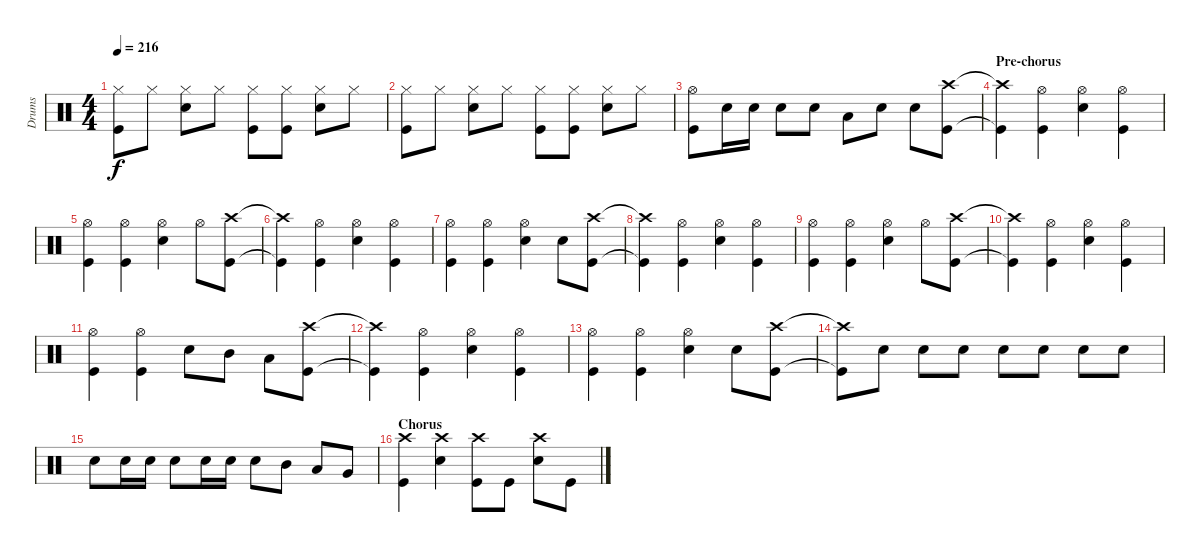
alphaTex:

\track ("Drums" "Drums") {instrument percussion}
\staff {score}
\articulation defaults
\ts (4 4)
\tempo 216
\clef neutral
\ks c
("Hi-Hat (closed)" "Kick (hit)").8{dy f} "Hi-Hat (closed)".8 ("Hi-Hat (closed)" "Snare (hit) 2").8 "Hi-Hat (closed)".8 ("Hi-Hat (closed)" "Kick (hit)").8 ("Hi-Hat (closed)" "Kick (hit)").8 ("Hi-Hat (closed)" "Snare (hit) 2").8 "Hi-Hat (closed)".8 |
("Hi-Hat (closed)" "Kick (hit)").8 "Hi-Hat (closed)".8 ("Hi-Hat (closed)" "Snare (hit) 2").8 "Hi-Hat (closed)".8 ("Hi-Hat (closed)" "Kick (hit)").8 ("Hi-Hat (closed)" "Kick (hit)").8 ("Hi-Hat (closed)" "Snare (hit) 2").8 "Hi-Hat (closed)".8 |
("Hi-Hat (open)" "Kick (hit)").8 "Snare (hit) 2".16 "Snare (hit) 2".16 "Snare (hit) 2".8 "Snare (hit) 2".8 "Low Tom (hit)".8 "Snare (hit) 2".8 "Snare (hit) 2".8 ("Crash high (hit)" "Kick (hit)").8 |
\section ("" "Pre-chorus")
("Crash high (hit)"{t} "Kick (hit)"{t}).4 ("Hi-Hat (open)" "Kick (hit)").4 ("Hi-Hat (open)" "Snare (hit) 2").4 ("Hi-Hat (open)" "Kick (hit)").4 |
("Hi-Hat (open)" "Kick (hit)").4 ("Hi-Hat (open)" "Kick (hit)").4 ("Hi-Hat (open)" "Snare (hit) 2").4 "Hi-Hat (open)".8 ("Crash high (hit)" "Kick (hit)").8 |
("Crash high (hit)"{t} "Kick (hit)"{t}).4 ("Hi-Hat (open)" "Kick (hit)").4 ("Hi-Hat (open)" "Snare (hit) 2").4 ("Hi-Hat (open)" "Kick (hit)").4 |
("Hi-Hat (open)" "Kick (hit)").4 ("Hi-Hat (open)" "Kick (hit)").4 ("Hi-Hat (open)" "Snare (hit) 2").4 "Snare (hit) 2".8 ("Crash high (hit)" "Kick (hit)").8 |
("Crash high (hit)"{t} "Kick (hit)"{t}).4 ("Hi-Hat (open)" "Kick (hit)").4 ("Hi-Hat (open)" "Snare (hit) 2").4 ("Hi-Hat (open)" "Kick (hit)").4 |
("Hi-Hat (open)" "Kick (hit)").4 ("Hi-Hat (open)" "Kick (hit)").4 ("Hi-Hat (open)" "Snare (hit) 2").4 "Hi-Hat (open)".8 ("Crash high (hit)" "Kick (hit)").8 |
("Crash high (hit)"{t} "Kick (hit)"{t}).4 ("Hi-Hat (open)" "Kick (hit)").4 ("Hi-Hat (open)" "Snare (hit) 2").4 ("Hi-Hat (open)" "Kick (hit)").4 |
("Hi-Hat (open)" "Kick (hit)").4 ("Hi-Hat (open)" "Kick (hit)").4 "Snare (hit) 2".8 "Mid Tom (hit)".8 "Low Tom (hit)".8 ("Crash high (hit)" "Kick (hit)").8 |
("Crash high (hit)"{t} "Kick (hit)"{t}).4 ("Hi-Hat (open)" "Kick (hit)").4 ("Hi-Hat (open)" "Snare (hit) 2").4 ("Hi-Hat (open)" "Kick (hit)").4 |
("Hi-Hat (open)" "Kick (hit)").4 ("Hi-Hat (open)" "Kick (hit)").4 ("Hi-Hat (open)" "Snare (hit) 2").4 "Snare (hit) 2".8 ("Crash high (hit)" "Kick (hit)").8 |
("Crash high (hit)"{t} "Kick (hit)"{t}).8 "Snare (hit) 2".8 "Snare (hit) 2".8 "Snare (hit) 2".8 "Snare (hit) 2".8 "Snare (hit) 2".8 "Snare (hit) 2".8 "Snare (hit) 2".8 |
"Snare (hit) 2".8 "Snare (hit) 2".16 "Snare (hit) 2".16 "Snare (hit) 2".8 "Snare (hit) 2".16 "Snare (hit) 2".16 "Snare (hit) 2".8 "Mid Tom (hit)".8 "Low Tom (hit)".8 "Very Low Tom (hit)".8 |
\section ("" "Chorus")
("Crash high (hit)" "Kick (hit)").4 ("Crash high (hit)" "Snare (hit) 2").4 ("Crash high (hit)" "Kick (hit)").8 "Kick (hit)".8 ("Crash high (hit)" "Snare (hit) 2").8 "Kick (hit)".8
